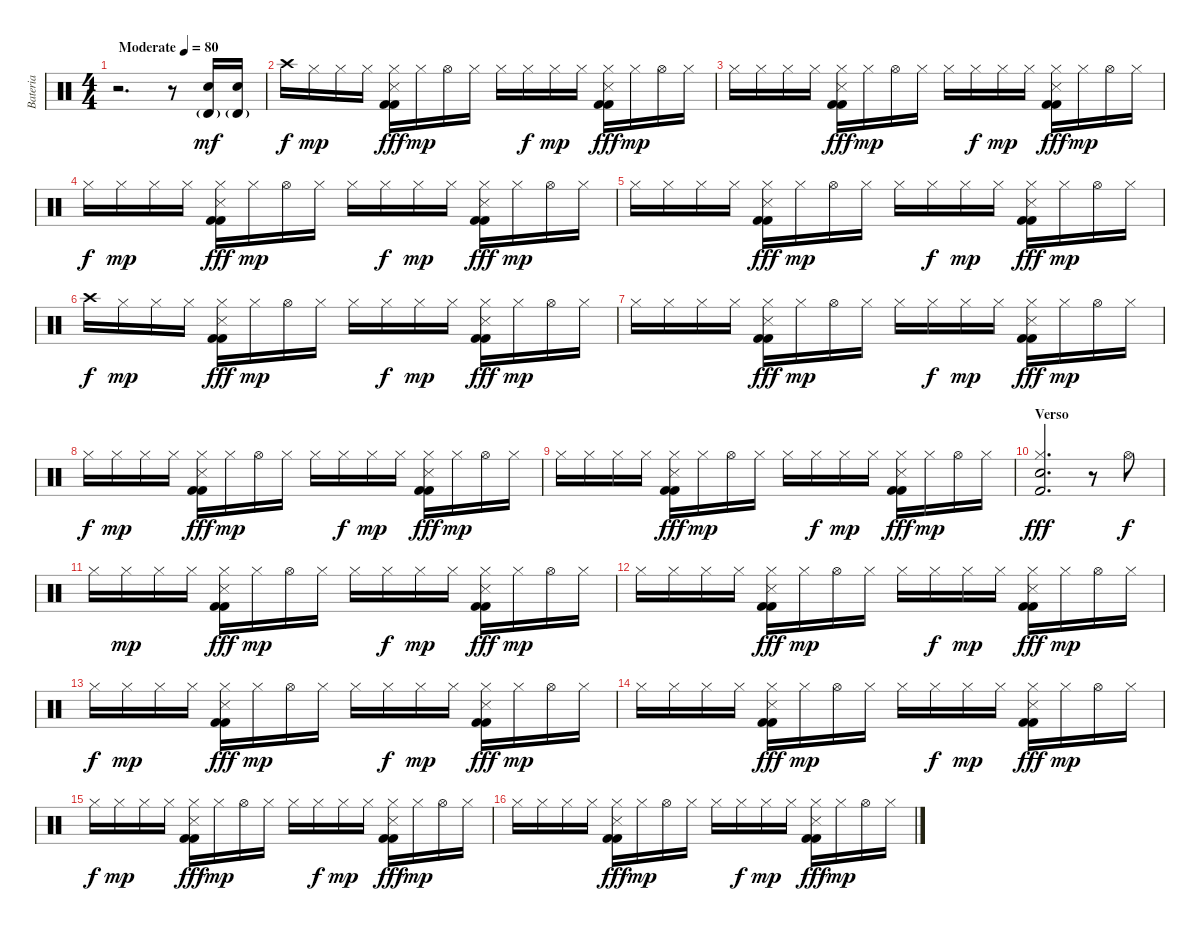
\track ("Bateria" "Bateria") {instrument percussion}
\staff {score}
\articulation defaults
\ts (4 4)
\tempo (80 "Moderate")
\clef neutral
\ks c
r.2{d dy mf} r.8 ("Electric Snare (hit)" "Timbale high (hit)"{g}).16 ("Electric Snare (hit)" "Timbale high (hit)"{g}).16 |
"Crash high (hit)".16{dy f} "Hi-Hat (closed)".16{dy mp} "Hi-Hat (closed)".16 "Hi-Hat (closed)".16 ("Hi-Hat (closed)" "Kick (hit) 2" "Snare (side stick) 3" "Kick (hit) 2").16{dy fff} "Hi-Hat (closed)".16{dy mp} "Hi-Hat (open)".16 "Hi-Hat (closed)".16 "Hi-Hat (closed)".16 "Hi-Hat (closed)".16{dy f} "Hi-Hat (closed)".16{dy mp} "Hi-Hat (closed)".16 ("Hi-Hat (closed)" "Snare (side stick) 3" "Kick (hit) 2" "Kick (hit) 2").16{dy fff} "Hi-Hat (closed)".16{dy mp} "Hi-Hat (open)".16 "Hi-Hat (closed)".16 |
"Hi-Hat (closed)".16 "Hi-Hat (closed)".16 "Hi-Hat (closed)".16 "Hi-Hat (closed)".16 ("Hi-Hat (closed)" "Kick (hit) 2" "Snare (side stick) 3" "Kick (hit) 2").16{dy fff} "Hi-Hat (closed)".16{dy mp} "Hi-Hat (open)".16 "Hi-Hat (closed)".16 "Hi-Hat (closed)".16 "Hi-Hat (closed)".16{dy f} "Hi-Hat (closed)".16{dy mp} "Hi-Hat (closed)".16 ("Hi-Hat (closed)" "Snare (side stick) 3" "Kick (hit) 2" "Kick (hit) 2").16{dy fff} "Hi-Hat (closed)".16{dy mp} "Hi-Hat (open)".16 "Hi-Hat (closed)".16 |
"Hi-Hat (closed)".16{dy f} "Hi-Hat (closed)".16{dy mp} "Hi-Hat (closed)".16 "Hi-Hat (closed)".16 ("Hi-Hat (closed)" "Kick (hit) 2" "Snare (side stick) 3" "Kick (hit) 2").16{dy fff} "Hi-Hat (closed)".16{dy mp} "Hi-Hat (open)".16 "Hi-Hat (closed)".16 "Hi-Hat (closed)".16 "Hi-Hat (closed)".16{dy f} "Hi-Hat (closed)".16{dy mp} "Hi-Hat (closed)".16 ("Hi-Hat (closed)" "Snare (side stick) 3" "Kick (hit) 2" "Kick (hit) 2").16{dy fff} "Hi-Hat (closed)".16{dy mp} "Hi-Hat (open)".16 "Hi-Hat (closed)".16 |
"Hi-Hat (closed)".16 "Hi-Hat (closed)".16 "Hi-Hat (closed)".16 "Hi-Hat (closed)".16 ("Hi-Hat (closed)" "Kick (hit) 2" "Snare (side stick) 3" "Kick (hit) 2").16{dy fff} "Hi-Hat (closed)".16{dy mp} "Hi-Hat (open)".16 "Hi-Hat (closed)".16 "Hi-Hat (closed)".16 "Hi-Hat (closed)".16{dy f} "Hi-Hat (closed)".16{dy mp} "Hi-Hat (closed)".16 ("Hi-Hat (closed)" "Snare (side stick) 3" "Kick (hit) 2" "Kick (hit) 2").16{dy fff} "Hi-Hat (closed)".16{dy mp} "Hi-Hat (open)".16 "Hi-Hat (closed)".16 |
"Crash high (hit)".16{dy f} "Hi-Hat (closed)".16{dy mp} "Hi-Hat (closed)".16 "Hi-Hat (closed)".16 ("Hi-Hat (closed)" "Kick (hit) 2" "Snare (side stick) 3" "Kick (hit) 2").16{dy fff} "Hi-Hat (closed)".16{dy mp} "Hi-Hat (open)".16 "Hi-Hat (closed)".16 "Hi-Hat (closed)".16 "Hi-Hat (closed)".16{dy f} "Hi-Hat (closed)".16{dy mp} "Hi-Hat (closed)".16 ("Hi-Hat (closed)" "Snare (side stick) 3" "Kick (hit) 2" "Kick (hit) 2").16{dy fff} "Hi-Hat (closed)".16{dy mp} "Hi-Hat (open)".16 "Hi-Hat (closed)".16 |
"Hi-Hat (closed)".16 "Hi-Hat (closed)".16 "Hi-Hat (closed)".16 "Hi-Hat (closed)".16 ("Hi-Hat (closed)" "Kick (hit) 2" "Snare (side stick) 3" "Kick (hit) 2").16{dy fff} "Hi-Hat (closed)".16{dy mp} "Hi-Hat (open)".16 "Hi-Hat (closed)".16 "Hi-Hat (closed)".16 "Hi-Hat (closed)".16{dy f} "Hi-Hat (closed)".16{dy mp} "Hi-Hat (closed)".16 ("Hi-Hat (closed)" "Snare (side stick) 3" "Kick (hit) 2" "Kick (hit) 2").16{dy fff} "Hi-Hat (closed)".16{dy mp} "Hi-Hat (open)".16 "Hi-Hat (closed)".16 |
"Hi-Hat (closed)".16{dy f} "Hi-Hat (closed)".16{dy mp} "Hi-Hat (closed)".16 "Hi-Hat (closed)".16 ("Hi-Hat (closed)" "Kick (hit) 2" "Snare (side stick) 3" "Kick (hit) 2").16{dy fff} "Hi-Hat (closed)".16{dy mp} "Hi-Hat (open)".16 "Hi-Hat (closed)".16 "Hi-Hat (closed)".16 "Hi-Hat (closed)".16{dy f} "Hi-Hat (closed)".16{dy mp} "Hi-Hat (closed)".16 ("Hi-Hat (closed)" "Snare (side stick) 3" "Kick (hit) 2" "Kick (hit) 2").16{dy fff} "Hi-Hat (closed)".16{dy mp} "Hi-Hat (open)".16 "Hi-Hat (closed)".16 |
"Hi-Hat (closed)".16 "Hi-Hat (closed)".16 "Hi-Hat (closed)".16 "Hi-Hat (closed)".16 ("Hi-Hat (closed)" "Kick (hit) 2" "Snare (side stick) 3" "Kick (hit) 2").16{dy fff} "Hi-Hat (closed)".16{dy mp} "Hi-Hat (open)".16 "Hi-Hat (closed)".16 "Hi-Hat (closed)".16 "Hi-Hat (closed)".16{dy f} "Hi-Hat (closed)".16{dy mp} "Hi-Hat (closed)".16 ("Hi-Hat (closed)" "Snare (side stick) 3" "Kick (hit) 2" "Kick (hit) 2").16{dy fff} "Hi-Hat (closed)".16{dy mp} "Hi-Hat (open)".16 "Hi-Hat (closed)".16 |
\section ("" "Verso")
("Hi-Hat (closed)" "Electric Snare (hit)" "Kick (hit) 2").2{d dy fff} r.8 "Hi-Hat (open)".8{dy f} |
"Hi-Hat (closed)".16 "Hi-Hat (closed)".16{dy mp} "Hi-Hat (closed)".16 "Hi-Hat (closed)".16 ("Hi-Hat (closed)" "Kick (hit) 2" "Snare (side stick) 3" "Kick (hit) 2").16{dy fff} "Hi-Hat (closed)".16{dy mp} "Hi-Hat (open)".16 "Hi-Hat (closed)".16 "Hi-Hat (closed)".16 "Hi-Hat (closed)".16{dy f} "Hi-Hat (closed)".16{dy mp} "Hi-Hat (closed)".16 ("Hi-Hat (closed)" "Snare (side stick) 3" "Kick (hit) 2" "Kick (hit) 2").16{dy fff} "Hi-Hat (closed)".16{dy mp} "Hi-Hat (open)".16 "Hi-Hat (closed)".16 |
"Hi-Hat (closed)".16 "Hi-Hat (closed)".16 "Hi-Hat (closed)".16 "Hi-Hat (closed)".16 ("Hi-Hat (closed)" "Kick (hit) 2" "Snare (side stick) 3" "Kick (hit) 2").16{dy fff} "Hi-Hat (closed)".16{dy mp} "Hi-Hat (open)".16 "Hi-Hat (closed)".16 "Hi-Hat (closed)".16 "Hi-Hat (closed)".16{dy f} "Hi-Hat (closed)".16{dy mp} "Hi-Hat (closed)".16 ("Hi-Hat (closed)" "Snare (side stick) 3" "Kick (hit) 2" "Kick (hit) 2").16{dy fff} "Hi-Hat (closed)".16{dy mp} "Hi-Hat (open)".16 "Hi-Hat (closed)".16 |
"Hi-Hat (closed)".16{dy f} "Hi-Hat (closed)".16{dy mp} "Hi-Hat (closed)".16 "Hi-Hat (closed)".16 ("Hi-Hat (closed)" "Kick (hit) 2" "Snare (side stick) 3" "Kick (hit) 2").16{dy fff} "Hi-Hat (closed)".16{dy mp} "Hi-Hat (open)".16 "Hi-Hat (closed)".16 "Hi-Hat (closed)".16 "Hi-Hat (closed)".16{dy f} "Hi-Hat (closed)".16{dy mp} "Hi-Hat (closed)".16 ("Hi-Hat (closed)" "Snare (side stick) 3" "Kick (hit) 2" "Kick (hit) 2").16{dy fff} "Hi-Hat (closed)".16{dy mp} "Hi-Hat (open)".16 "Hi-Hat (closed)".16 |
"Hi-Hat (closed)".16 "Hi-Hat (closed)".16 "Hi-Hat (closed)".16 "Hi-Hat (closed)".16 ("Hi-Hat (closed)" "Kick (hit) 2" "Snare (side stick) 3" "Kick (hit) 2").16{dy fff} "Hi-Hat (closed)".16{dy mp} "Hi-Hat (open)".16 "Hi-Hat (closed)".16 "Hi-Hat (closed)".16 "Hi-Hat (closed)".16{dy f} "Hi-Hat (closed)".16{dy mp} "Hi-Hat (closed)".16 ("Hi-Hat (closed)" "Snare (side stick) 3" "Kick (hit) 2" "Kick (hit) 2").16{dy fff} "Hi-Hat (closed)".16{dy mp} "Hi-Hat (open)".16 "Hi-Hat (closed)".16 |
"Hi-Hat (closed)".16{dy f} "Hi-Hat (closed)".16{dy mp} "Hi-Hat (closed)".16 "Hi-Hat (closed)".16 ("Hi-Hat (closed)" "Kick (hit) 2" "Snare (side stick) 3" "Kick (hit) 2").16{dy fff} "Hi-Hat (closed)".16{dy mp} "Hi-Hat (open)".16 "Hi-Hat (closed)".16 "Hi-Hat (closed)".16 "Hi-Hat (closed)".16{dy f} "Hi-Hat (closed)".16{dy mp} "Hi-Hat (closed)".16 ("Hi-Hat (closed)" "Snare (side stick) 3" "Kick (hit) 2" "Kick (hit) 2").16{dy fff} "Hi-Hat (closed)".16{dy mp} "Hi-Hat (open)".16 "Hi-Hat (closed)".16 |
"Hi-Hat (closed)".16 "Hi-Hat (closed)".16 "Hi-Hat (closed)".16 "Hi-Hat (closed)".16 ("Hi-Hat (closed)" "Kick (hit) 2" "Snare (side stick) 3" "Kick (hit) 2").16{dy fff} "Hi-Hat (closed)".16{dy mp} "Hi-Hat (open)".16 "Hi-Hat (closed)".16 "Hi-Hat (closed)".16 "Hi-Hat (closed)".16{dy f} "Hi-Hat (closed)".16{dy mp} "Hi-Hat (closed)".16 ("Hi-Hat (closed)" "Snare (side stick) 3" "Kick (hit) 2" "Kick (hit) 2").16{dy fff} "Hi-Hat (closed)".16{dy mp} "Hi-Hat (open)".16 "Hi-Hat (closed)".16
